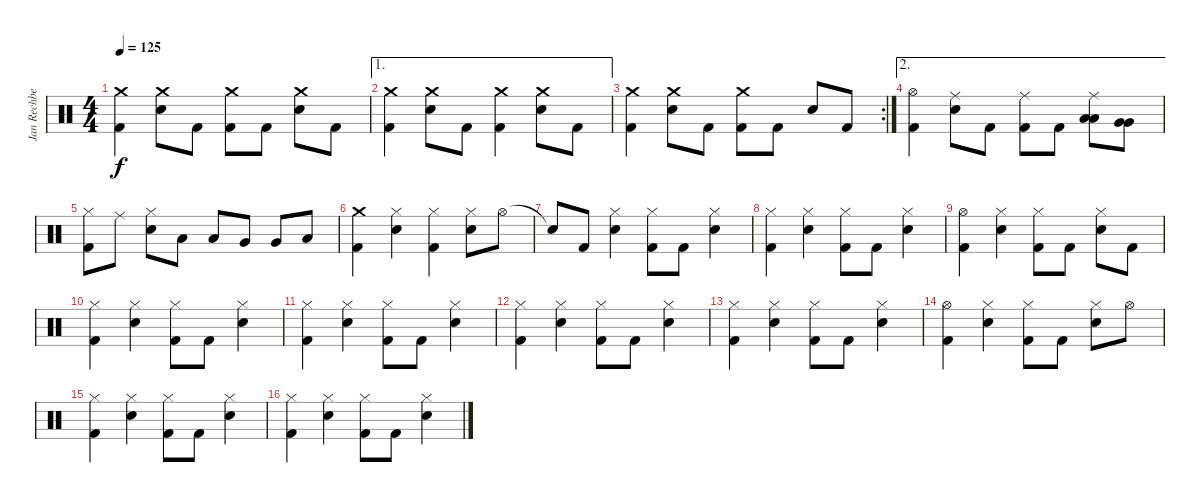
\track ("Jan Rechberger" "Jan Rechbe") {instrument percussion}
\staff {score}
\articulation defaults
\ts (4 4)
\tempo 125
\clef neutral
\ks c
("Crash medium (hit)" "Kick (hit) 2").4{dy f} ("Crash medium (hit)" "Electric Snare (hit)").8 "Kick (hit) 2".8 ("Crash medium (hit)" "Kick (hit) 2").8 "Kick (hit) 2".8 ("Crash medium (hit)" "Electric Snare (hit)").8 "Kick (hit) 2".8 |
\ae 1
("Crash medium (hit)" "Kick (hit) 2").4 ("Crash medium (hit)" "Electric Snare (hit)").8 "Kick (hit) 2".8 ("Crash medium (hit)" "Kick (hit) 2").4 ("Crash medium (hit)" "Electric Snare (hit)").8 "Kick (hit) 2".8 |
\rc 2
("Crash medium (hit)" "Kick (hit) 2").4 ("Crash medium (hit)" "Electric Snare (hit)").8 "Kick (hit) 2".8 ("Crash medium (hit)" "Kick (hit) 2").8 "Kick (hit) 2".8 "Electric Snare (hit)".8 "Kick (hit) 2".8 |
\ae 2
("Hi-Hat (open)" "Kick (hit) 2").4 ("Ride (middle)" "Electric Snare (hit)").8 "Kick (hit) 2".8 ("Ride (middle)" "Kick (hit) 2").8 "Kick (hit) 2".8 ("Ride (middle)" "Low Tom (hit)" "Low Tom (hit)").8 ("Very Low Tom (hit)" "Very Low Tom (hit)").8 |
("Hi-Hat (closed)" "Kick (hit) 2").8 "Ride (middle)".8 ("Hi-Hat (closed)" "Electric Snare (hit)").8 "Low Tom (hit)".8 "Low Tom (hit)".8 "Very Low Tom (hit)".8 "Very Low Tom (hit)".8 "Low Floor Tom (hit)".8 |
("Crash medium (hit)" "Kick (hit) 2").4 ("Hi-Hat (closed)" "Electric Snare (hit)").4 ("Hi-Hat (closed)" "Kick (hit) 2").4 ("Hi-Hat (closed)" "Electric Snare (hit)").8 "Hi-Hat (open)".8 |
"Snare (hit)"{t}.8 "Kick (hit) 2".8 ("Hi-Hat (closed)" "Electric Snare (hit)").4 ("Hi-Hat (closed)" "Kick (hit) 2").8 "Kick (hit) 2".8 ("Hi-Hat (closed)" "Electric Snare (hit)").4 |
("Hi-Hat (closed)" "Kick (hit) 2").4 ("Hi-Hat (closed)" "Electric Snare (hit)").4 ("Hi-Hat (closed)" "Kick (hit) 2").8 "Kick (hit) 2".8 ("Hi-Hat (closed)" "Electric Snare (hit)").4 |
("Hi-Hat (open)" "Kick (hit) 2").4 ("Hi-Hat (closed)" "Electric Snare (hit)").4 ("Hi-Hat (closed)" "Kick (hit) 2").8 "Kick (hit) 2".8 ("Hi-Hat (closed)" "Electric Snare (hit)").8 "Kick (hit) 2".8 |
("Hi-Hat (closed)" "Kick (hit) 2").4 ("Hi-Hat (closed)" "Electric Snare (hit)").4 ("Hi-Hat (closed)" "Kick (hit) 2").8 "Kick (hit) 2".8 ("Hi-Hat (closed)" "Electric Snare (hit)").4 |
("Hi-Hat (closed)" "Kick (hit) 2").4 ("Hi-Hat (closed)" "Electric Snare (hit)").4 ("Hi-Hat (closed)" "Kick (hit) 2").8 "Kick (hit) 2".8 ("Hi-Hat (closed)" "Electric Snare (hit)").4 |
("Hi-Hat (closed)" "Kick (hit) 2").4 ("Hi-Hat (closed)" "Electric Snare (hit)").4 ("Hi-Hat (closed)" "Kick (hit) 2").8 "Kick (hit) 2".8 ("Hi-Hat (closed)" "Electric Snare (hit)").4 |
("Hi-Hat (closed)" "Kick (hit) 2").4 ("Hi-Hat (closed)" "Electric Snare (hit)").4 ("Hi-Hat (closed)" "Kick (hit) 2").8 "Kick (hit) 2".8 ("Hi-Hat (closed)" "Electric Snare (hit)").4 |
("Hi-Hat (open)" "Kick (hit) 2").4 ("Hi-Hat (closed)" "Electric Snare (hit)").4 ("Hi-Hat (closed)" "Kick (hit) 2").8 "Kick (hit) 2".8 ("Hi-Hat (closed)" "Electric Snare (hit)").8 "Hi-Hat (open)".8 |
("Hi-Hat (closed)" "Kick (hit) 2").4 ("Hi-Hat (closed)" "Electric Snare (hit)").4 ("Hi-Hat (closed)" "Kick (hit) 2").8 "Kick (hit) 2".8 ("Hi-Hat (closed)" "Electric Snare (hit)").4 |
("Hi-Hat (closed)" "Kick (hit) 2").4 ("Hi-Hat (closed)" "Electric Snare (hit)").4 ("Hi-Hat (closed)" "Kick (hit) 2").8 "Kick (hit) 2".8 ("Hi-Hat (closed)" "Electric Snare (hit)").4
